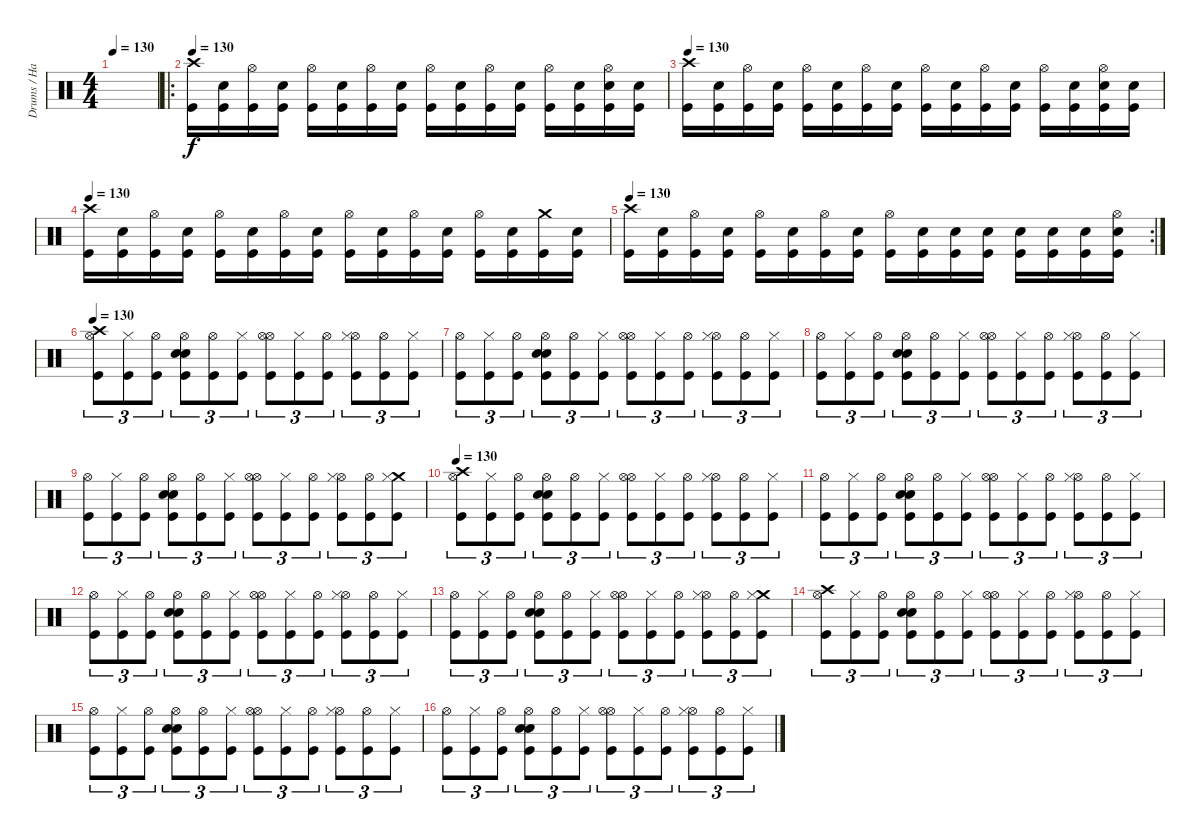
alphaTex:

\track ("Drums / Hammer of God" "Drums / Ha") {instrument percussion}
\staff {score}
\articulation defaults
\ts (4 4)
\tempo 130
\clef neutral
\ks c
|
\ro
\tempo 130
("Crash high (hit)" "Kick (hit)").16 ("Snare (hit) 2" "Kick (hit)").16 ("Hi-Hat (open)" "Kick (hit)").16 ("Snare (hit) 2" "Kick (hit)").16 ("Hi-Hat (open)" "Kick (hit)").16 ("Snare (hit) 2" "Kick (hit)").16 ("Hi-Hat (open)" "Kick (hit)").16 ("Snare (hit) 2" "Kick (hit)").16 ("Hi-Hat (open)" "Kick (hit)").16 ("Snare (hit) 2" "Kick (hit)").16 ("Hi-Hat (open)" "Kick (hit)").16 ("Snare (hit) 2" "Kick (hit)").16 ("Hi-Hat (open)" "Kick (hit)").16 ("Snare (hit) 2" "Kick (hit)").16 ("Hi-Hat (open)" "Snare (hit) 2" "Kick (hit)").16 ("Snare (hit) 2" "Kick (hit)").16 |
\tempo 130
("Crash high (hit)" "Kick (hit)").16 ("Snare (hit) 2" "Kick (hit)").16 ("Hi-Hat (open)" "Kick (hit)").16 ("Snare (hit) 2" "Kick (hit)").16 ("Hi-Hat (open)" "Kick (hit)").16 ("Snare (hit) 2" "Kick (hit)").16 ("Hi-Hat (open)" "Kick (hit)").16 ("Snare (hit) 2" "Kick (hit)").16 ("Hi-Hat (open)" "Kick (hit)").16 ("Snare (hit) 2" "Kick (hit)").16 ("Hi-Hat (open)" "Kick (hit)").16 ("Snare (hit) 2" "Kick (hit)").16 ("Hi-Hat (open)" "Kick (hit)").16 ("Snare (hit) 2" "Kick (hit)").16 ("Hi-Hat (open)" "Snare (hit) 2" "Kick (hit)").16 ("Snare (hit) 2" "Kick (hit)").16 |
\tempo 130
("Crash high (hit)" "Kick (hit)").16 ("Snare (hit) 2" "Kick (hit)").16 ("Hi-Hat (open)" "Kick (hit)").16 ("Snare (hit) 2" "Kick (hit)").16 ("Hi-Hat (open)" "Kick (hit)").16 ("Snare (hit) 2" "Kick (hit)").16 ("Hi-Hat (open)" "Kick (hit)").16 ("Snare (hit) 2" "Kick (hit)").16 ("Hi-Hat (open)" "Kick (hit)").16 ("Snare (hit) 2" "Kick (hit)").16 ("Hi-Hat (open)" "Kick (hit)").16 ("Snare (hit) 2" "Kick (hit)").16 ("Hi-Hat (open)" "Kick (hit)").16 ("Snare (hit) 2" "Kick (hit)").16 ("Crash medium (hit)" "Kick (hit)").16 ("Snare (hit) 2" "Kick (hit)").16 |
\rc 2
\tempo 130
("Crash high (hit)" "Kick (hit)").16 ("Snare (hit) 2" "Kick (hit)").16 ("Hi-Hat (open)" "Kick (hit)").16 ("Snare (hit) 2" "Kick (hit)").16 ("Hi-Hat (open)" "Kick (hit)").16 ("Snare (hit) 2" "Kick (hit)").16 ("Hi-Hat (open)" "Kick (hit)").16 ("Snare (hit) 2" "Kick (hit)").16 ("Hi-Hat (open)" "Kick (hit)").16 ("Snare (hit) 2" "Kick (hit)").16 ("Snare (hit) 2" "Kick (hit)").16 ("Snare (hit) 2" "Kick (hit)").16 ("Snare (hit) 2" "Kick (hit)").16 ("Snare (hit) 2" "Kick (hit)").16 ("Snare (hit) 2" "Kick (hit)").16 ("Hi-Hat (open)" "Snare (hit) 2" "Kick (hit)").16 |
\tempo 130
("Crash high (hit)" "Hi-Hat (open)" "Kick (hit)").8{tu (3 2)} ("Hi-Hat (closed)" "Kick (hit)").8{tu (3 2)} ("Hi-Hat (open)" "Kick (hit)").8{tu (3 2)} ("Snare (hit) 2" "Hi-Hat (open)" "Snare (hit) 2" "Kick (hit)").8{tu (3 2)} ("Hi-Hat (open)" "Kick (hit)").8{tu (3 2)} ("Hi-Hat (closed)" "Kick (hit)").8{tu (3 2)} ("Hi-Hat (open)" "Hi-Hat (open)" "Kick (hit)").8{tu (3 2)} ("Hi-Hat (closed)" "Kick (hit)").8{tu (3 2)} ("Hi-Hat (open)" "Kick (hit)").8{tu (3 2)} ("Hi-Hat (open)" "Hi-Hat (closed)" "Kick (hit)").8{tu (3 2)} ("Hi-Hat (open)" "Kick (hit)").8{tu (3 2)} ("Hi-Hat (closed)" "Kick (hit)").8{tu (3 2)} |
("Hi-Hat (open)" "Kick (hit)").8{tu (3 2)} ("Hi-Hat (closed)" "Kick (hit)").8{tu (3 2)} ("Hi-Hat (open)" "Kick (hit)").8{tu (3 2)} ("Snare (hit) 2" "Hi-Hat (open)" "Snare (hit) 2" "Kick (hit)").8{tu (3 2)} ("Hi-Hat (open)" "Kick (hit)").8{tu (3 2)} ("Hi-Hat (closed)" "Kick (hit)").8{tu (3 2)} ("Hi-Hat (open)" "Hi-Hat (open)" "Kick (hit)").8{tu (3 2)} ("Hi-Hat (closed)" "Kick (hit)").8{tu (3 2)} ("Hi-Hat (open)" "Kick (hit)").8{tu (3 2)} ("Hi-Hat (open)" "Hi-Hat (closed)" "Kick (hit)").8{tu (3 2)} ("Hi-Hat (open)" "Kick (hit)").8{tu (3 2)} ("Hi-Hat (closed)" "Kick (hit)").8{tu (3 2)} |
("Hi-Hat (open)" "Kick (hit)").8{tu (3 2)} ("Hi-Hat (closed)" "Kick (hit)").8{tu (3 2)} ("Hi-Hat (open)" "Kick (hit)").8{tu (3 2)} ("Snare (hit) 2" "Hi-Hat (open)" "Snare (hit) 2" "Kick (hit)").8{tu (3 2)} ("Hi-Hat (open)" "Kick (hit)").8{tu (3 2)} ("Hi-Hat (closed)" "Kick (hit)").8{tu (3 2)} ("Hi-Hat (open)" "Hi-Hat (open)" "Kick (hit)").8{tu (3 2)} ("Hi-Hat (closed)" "Kick (hit)").8{tu (3 2)} ("Hi-Hat (open)" "Kick (hit)").8{tu (3 2)} ("Hi-Hat (open)" "Hi-Hat (closed)" "Kick (hit)").8{tu (3 2)} ("Hi-Hat (open)" "Kick (hit)").8{tu (3 2)} ("Hi-Hat (closed)" "Kick (hit)").8{tu (3 2)} |
("Hi-Hat (open)" "Kick (hit)").8{tu (3 2)} ("Hi-Hat (closed)" "Kick (hit)").8{tu (3 2)} ("Hi-Hat (open)" "Kick (hit)").8{tu (3 2)} ("Snare (hit) 2" "Hi-Hat (open)" "Snare (hit) 2" "Kick (hit)").8{tu (3 2)} ("Hi-Hat (open)" "Kick (hit)").8{tu (3 2)} ("Hi-Hat (closed)" "Kick (hit)").8{tu (3 2)} ("Hi-Hat (open)" "Hi-Hat (open)" "Kick (hit)").8{tu (3 2)} ("Hi-Hat (closed)" "Kick (hit)").8{tu (3 2)} ("Hi-Hat (open)" "Kick (hit)").8{tu (3 2)} ("Hi-Hat (open)" "Hi-Hat (closed)" "Kick (hit)").8{tu (3 2)} ("Hi-Hat (open)" "Kick (hit)").8{tu (3 2)} ("Crash medium (hit)" "Hi-Hat (closed)" "Kick (hit)").8{tu (3 2)} |
\tempo 130
("Crash high (hit)" "Hi-Hat (open)" "Kick (hit)").8{tu (3 2)} ("Hi-Hat (closed)" "Kick (hit)").8{tu (3 2)} ("Hi-Hat (open)" "Kick (hit)").8{tu (3 2)} ("Snare (hit) 2" "Hi-Hat (open)" "Snare (hit) 2" "Kick (hit)").8{tu (3 2)} ("Hi-Hat (open)" "Kick (hit)").8{tu (3 2)} ("Hi-Hat (closed)" "Kick (hit)").8{tu (3 2)} ("Hi-Hat (open)" "Hi-Hat (open)" "Kick (hit)").8{tu (3 2)} ("Hi-Hat (closed)" "Kick (hit)").8{tu (3 2)} ("Hi-Hat (open)" "Kick (hit)").8{tu (3 2)} ("Hi-Hat (open)" "Hi-Hat (closed)" "Kick (hit)").8{tu (3 2)} ("Hi-Hat (open)" "Kick (hit)").8{tu (3 2)} ("Hi-Hat (closed)" "Kick (hit)").8{tu (3 2)} |
("Hi-Hat (open)" "Kick (hit)").8{tu (3 2)} ("Hi-Hat (closed)" "Kick (hit)").8{tu (3 2)} ("Hi-Hat (open)" "Kick (hit)").8{tu (3 2)} ("Snare (hit) 2" "Hi-Hat (open)" "Snare (hit) 2" "Kick (hit)").8{tu (3 2)} ("Hi-Hat (open)" "Kick (hit)").8{tu (3 2)} ("Hi-Hat (closed)" "Kick (hit)").8{tu (3 2)} ("Hi-Hat (open)" "Hi-Hat (open)" "Kick (hit)").8{tu (3 2)} ("Hi-Hat (closed)" "Kick (hit)").8{tu (3 2)} ("Hi-Hat (open)" "Kick (hit)").8{tu (3 2)} ("Hi-Hat (open)" "Hi-Hat (closed)" "Kick (hit)").8{tu (3 2)} ("Hi-Hat (open)" "Kick (hit)").8{tu (3 2)} ("Hi-Hat (closed)" "Kick (hit)").8{tu (3 2)} |
("Hi-Hat (open)" "Kick (hit)").8{tu (3 2)} ("Hi-Hat (closed)" "Kick (hit)").8{tu (3 2)} ("Hi-Hat (open)" "Kick (hit)").8{tu (3 2)} ("Snare (hit) 2" "Hi-Hat (open)" "Snare (hit) 2" "Kick (hit)").8{tu (3 2)} ("Hi-Hat (open)" "Kick (hit)").8{tu (3 2)} ("Hi-Hat (closed)" "Kick (hit)").8{tu (3 2)} ("Hi-Hat (open)" "Hi-Hat (open)" "Kick (hit)").8{tu (3 2)} ("Hi-Hat (closed)" "Kick (hit)").8{tu (3 2)} ("Hi-Hat (open)" "Kick (hit)").8{tu (3 2)} ("Hi-Hat (open)" "Hi-Hat (closed)" "Kick (hit)").8{tu (3 2)} ("Hi-Hat (open)" "Kick (hit)").8{tu (3 2)} ("Hi-Hat (closed)" "Kick (hit)").8{tu (3 2)} |
("Hi-Hat (open)" "Kick (hit)").8{tu (3 2)} ("Hi-Hat (closed)" "Kick (hit)").8{tu (3 2)} ("Hi-Hat (open)" "Kick (hit)").8{tu (3 2)} ("Snare (hit) 2" "Hi-Hat (open)" "Snare (hit) 2" "Kick (hit)").8{tu (3 2)} ("Hi-Hat (open)" "Kick (hit)").8{tu (3 2)} ("Hi-Hat (closed)" "Kick (hit)").8{tu (3 2)} ("Hi-Hat (open)" "Hi-Hat (open)" "Kick (hit)").8{tu (3 2)} ("Hi-Hat (closed)" "Kick (hit)").8{tu (3 2)} ("Hi-Hat (open)" "Kick (hit)").8{tu (3 2)} ("Hi-Hat (open)" "Hi-Hat (closed)" "Kick (hit)").8{tu (3 2)} ("Hi-Hat (open)" "Kick (hit)").8{tu (3 2)} ("Crash medium (hit)" "Hi-Hat (closed)" "Kick (hit)").8{tu (3 2)} |
("Crash high (hit)" "Hi-Hat (open)" "Kick (hit)").8{tu (3 2)} ("Hi-Hat (closed)" "Kick (hit)").8{tu (3 2)} ("Hi-Hat (open)" "Kick (hit)").8{tu (3 2)} ("Snare (hit) 2" "Hi-Hat (open)" "Snare (hit) 2" "Kick (hit)").8{tu (3 2)} ("Hi-Hat (open)" "Kick (hit)").8{tu (3 2)} ("Hi-Hat (closed)" "Kick (hit)").8{tu (3 2)} ("Hi-Hat (open)" "Hi-Hat (open)" "Kick (hit)").8{tu (3 2)} ("Hi-Hat (closed)" "Kick (hit)").8{tu (3 2)} ("Hi-Hat (open)" "Kick (hit)").8{tu (3 2)} ("Hi-Hat (open)" "Hi-Hat (closed)" "Kick (hit)").8{tu (3 2)} ("Hi-Hat (open)" "Kick (hit)").8{tu (3 2)} ("Hi-Hat (closed)" "Kick (hit)").8{tu (3 2)} |
("Hi-Hat (open)" "Kick (hit)").8{tu (3 2)} ("Hi-Hat (closed)" "Kick (hit)").8{tu (3 2)} ("Hi-Hat (open)" "Kick (hit)").8{tu (3 2)} ("Snare (hit) 2" "Hi-Hat (open)" "Snare (hit) 2" "Kick (hit)").8{tu (3 2)} ("Hi-Hat (open)" "Kick (hit)").8{tu (3 2)} ("Hi-Hat (closed)" "Kick (hit)").8{tu (3 2)} ("Hi-Hat (open)" "Hi-Hat (open)" "Kick (hit)").8{tu (3 2)} ("Hi-Hat (closed)" "Kick (hit)").8{tu (3 2)} ("Hi-Hat (open)" "Kick (hit)").8{tu (3 2)} ("Hi-Hat (open)" "Hi-Hat (closed)" "Kick (hit)").8{tu (3 2)} ("Hi-Hat (open)" "Kick (hit)").8{tu (3 2)} ("Hi-Hat (closed)" "Kick (hit)").8{tu (3 2)} |
("Hi-Hat (open)" "Kick (hit)").8{tu (3 2)} ("Hi-Hat (closed)" "Kick (hit)").8{tu (3 2)} ("Hi-Hat (open)" "Kick (hit)").8{tu (3 2)} ("Snare (hit) 2" "Hi-Hat (open)" "Snare (hit) 2" "Kick (hit)").8{tu (3 2)} ("Hi-Hat (open)" "Kick (hit)").8{tu (3 2)} ("Hi-Hat (closed)" "Kick (hit)").8{tu (3 2)} ("Hi-Hat (open)" "Hi-Hat (open)" "Kick (hit)").8{tu (3 2)} ("Hi-Hat (closed)" "Kick (hit)").8{tu (3 2)} ("Hi-Hat (open)" "Kick (hit)").8{tu (3 2)} ("Hi-Hat (open)" "Hi-Hat (closed)" "Kick (hit)").8{tu (3 2)} ("Hi-Hat (open)" "Kick (hit)").8{tu (3 2)} ("Hi-Hat (closed)" "Kick (hit)").8{tu (3 2)}
